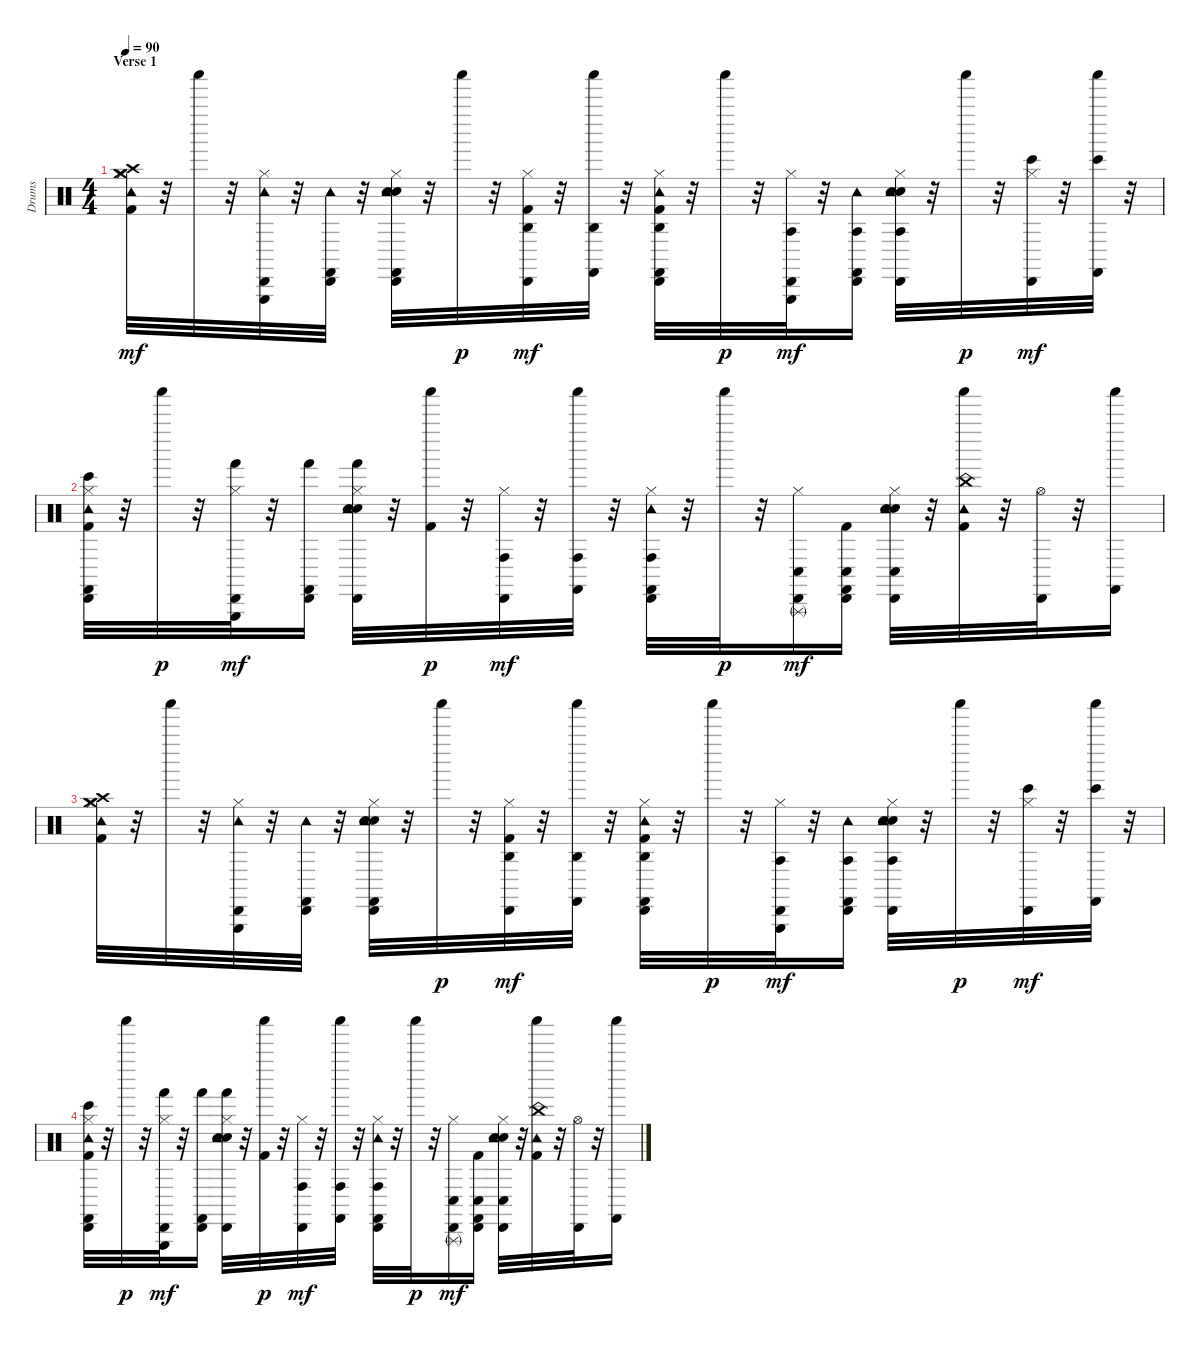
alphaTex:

\track ("Drums" "Drums") {instrument percussion}
\staff {score}
\articulation defaults
\ts (4 4)
\section ("" "Verse 1")
\tempo 90
\clef neutral
\ks c
("Hi-Hat (closed)" "Kick (hit) 2" "Tambourine (hit)" "Crash high (hit)" "Crash medium (hit)" "Hi-Hat (closed)").32{dy mf} r.32 "Shaker (hit)".32 r.32 ("Hi-Hat (closed)" "Tambourine (hit)" "Cabasa (hit)" "Triangle (hit)").32 r.32 ("Tambourine (hit)" "Cabasa (hit)" "Castanets (hit)").32 r.32 ("Electric Snare (hit)" "Hi-Hat (closed)" "Snare (hit) 2" "Tambourine (hit)" "Cabasa (hit)" "Castanets (hit)").32 r.32 "Shaker (hit)".32{dy p} r.32 ("Hi-Hat (closed)" "Kick (hit) 2" "Agogo high (hit)" "Cabasa (hit)").32{dy mf} r.32 ("Agogo high (hit)" "Shaker (hit)" "Castanets (hit)").32 r.32 ("Hi-Hat (closed)" "Kick (hit) 2" "Agogo high (hit)" "Cabasa (hit)" "Tambourine (hit)" "Castanets (hit)").32 r.32 "Shaker (hit)".32{dy p} r.32 ("Hi-Hat (closed)" "Agogo tow (hit)" "Cabasa (hit)" "Triangle (hit)").32{dy mf} r.32 ("Agogo tow (hit)" "Cabasa (hit)" "Tambourine (hit)" "Castanets (hit)").16 ("Electric Snare (hit)" "Hi-Hat (closed)" "Snare (hit) 2" "Agogo tow (hit)" "Tambourine (hit)" "Cabasa (hit)").32 r.32 "Shaker (hit)".32{dy p} r.32 ("Hi-Hat (closed)" "Bongo High (hit)" "Cabasa (hit)").32{dy mf} r.32 ("Bongo High (hit)" "Shaker (hit)" "Castanets (hit)").32 r.32 |
("Hi-Hat (closed)" "Kick (hit) 2" "Bongo High (hit)" "Cabasa (hit)" "Tambourine (hit)" "Castanets (hit)").32 r.32 "Shaker (hit)".32{dy p} r.32 ("Hi-Hat (closed)" "Hand (hit)" "Cabasa (hit)" "Triangle (hit)").32{dy mf} r.32 ("Hand (hit)" "Cabasa (hit)" "Castanets (hit)").16 ("Electric Snare (hit)" "Hi-Hat (closed)" "Snare (hit) 2" "Hand (hit)" "Cabasa (hit)" "Tambourine (hit)").32 r.32 ("Kick (hit) 2" "Shaker (hit)").32{dy p} r.32 ("Hi-Hat (closed)" "Conga high (hit)" "Cabasa (hit)").32{dy mf} r.32 ("Conga high (hit)" "Shaker (hit)" "Castanets (hit)").32 r.32 ("Hi-Hat (closed)" "Conga high (hit)" "Cabasa (hit)" "Tambourine (hit)" "Castanets (hit)").32 r.32 "Shaker (hit)".32{dy p} r.32 ("Hi-Hat (closed)" "Conga low (hit)" "Cabasa (hit)" "Triangle (rnute)").16{dy mf} ("Kick (hit) 2" "Conga low (hit)" "Cabasa (hit)" "Castanets (hit)").16 ("Electric Snare (hit)" "Hi-Hat (closed)" "Snare (hit) 2" "Conga low (hit)" "Cabasa (hit)" "Tambourine (hit)").32 r.32 ("Kick (hit) 2" "Tambourine (hit)" "Shaker (hit)" "China (hit)").32 r.32 ("Hi-Hat (open)" "Cabasa (hit)").32 r.32 ("Shaker (hit)" "Castanets (hit)").16 |
("Hi-Hat (closed)" "Kick (hit) 2" "Tambourine (hit)" "Crash high (hit)" "Crash medium (hit)" "Hi-Hat (closed)").32 r.32 "Shaker (hit)".32 r.32 ("Hi-Hat (closed)" "Tambourine (hit)" "Cabasa (hit)" "Triangle (hit)").32 r.32 ("Tambourine (hit)" "Cabasa (hit)" "Castanets (hit)").32 r.32 ("Electric Snare (hit)" "Hi-Hat (closed)" "Snare (hit) 2" "Tambourine (hit)" "Cabasa (hit)" "Castanets (hit)").32 r.32 "Shaker (hit)".32{dy p} r.32 ("Hi-Hat (closed)" "Kick (hit) 2" "Agogo high (hit)" "Cabasa (hit)").32{dy mf} r.32 ("Agogo high (hit)" "Shaker (hit)" "Castanets (hit)").32 r.32 ("Hi-Hat (closed)" "Kick (hit) 2" "Agogo high (hit)" "Cabasa (hit)" "Tambourine (hit)" "Castanets (hit)").32 r.32 "Shaker (hit)".32{dy p} r.32 ("Hi-Hat (closed)" "Agogo tow (hit)" "Cabasa (hit)" "Triangle (hit)").32{dy mf} r.32 ("Agogo tow (hit)" "Cabasa (hit)" "Tambourine (hit)" "Castanets (hit)").16 ("Electric Snare (hit)" "Hi-Hat (closed)" "Snare (hit) 2" "Agogo tow (hit)" "Tambourine (hit)" "Cabasa (hit)").32 r.32 "Shaker (hit)".32{dy p} r.32 ("Hi-Hat (closed)" "Bongo High (hit)" "Cabasa (hit)").32{dy mf} r.32 ("Bongo High (hit)" "Shaker (hit)" "Castanets (hit)").32 r.32 |
("Hi-Hat (closed)" "Kick (hit) 2" "Bongo High (hit)" "Cabasa (hit)" "Tambourine (hit)" "Castanets (hit)").32 r.32 "Shaker (hit)".32{dy p} r.32 ("Hi-Hat (closed)" "Hand (hit)" "Cabasa (hit)" "Triangle (hit)").32{dy mf} r.32 ("Hand (hit)" "Cabasa (hit)" "Castanets (hit)").16 ("Electric Snare (hit)" "Hi-Hat (closed)" "Snare (hit) 2" "Hand (hit)" "Cabasa (hit)" "Tambourine (hit)").32 r.32 ("Kick (hit) 2" "Shaker (hit)").32{dy p} r.32 ("Hi-Hat (closed)" "Conga high (hit)" "Cabasa (hit)").32{dy mf} r.32 ("Conga high (hit)" "Shaker (hit)" "Castanets (hit)").32 r.32 ("Hi-Hat (closed)" "Conga high (hit)" "Cabasa (hit)" "Tambourine (hit)" "Castanets (hit)").32 r.32 "Shaker (hit)".32{dy p} r.32 ("Hi-Hat (closed)" "Conga low (hit)" "Cabasa (hit)" "Triangle (rnute)").16{dy mf} ("Kick (hit) 2" "Conga low (hit)" "Cabasa (hit)" "Castanets (hit)").16 ("Electric Snare (hit)" "Hi-Hat (closed)" "Snare (hit) 2" "Conga low (hit)" "Cabasa (hit)" "Tambourine (hit)").32 r.32 ("Kick (hit) 2" "Tambourine (hit)" "Shaker (hit)" "China (hit)").32 r.32 ("Hi-Hat (open)" "Cabasa (hit)").32 r.32 ("Shaker (hit)" "Castanets (hit)").16
